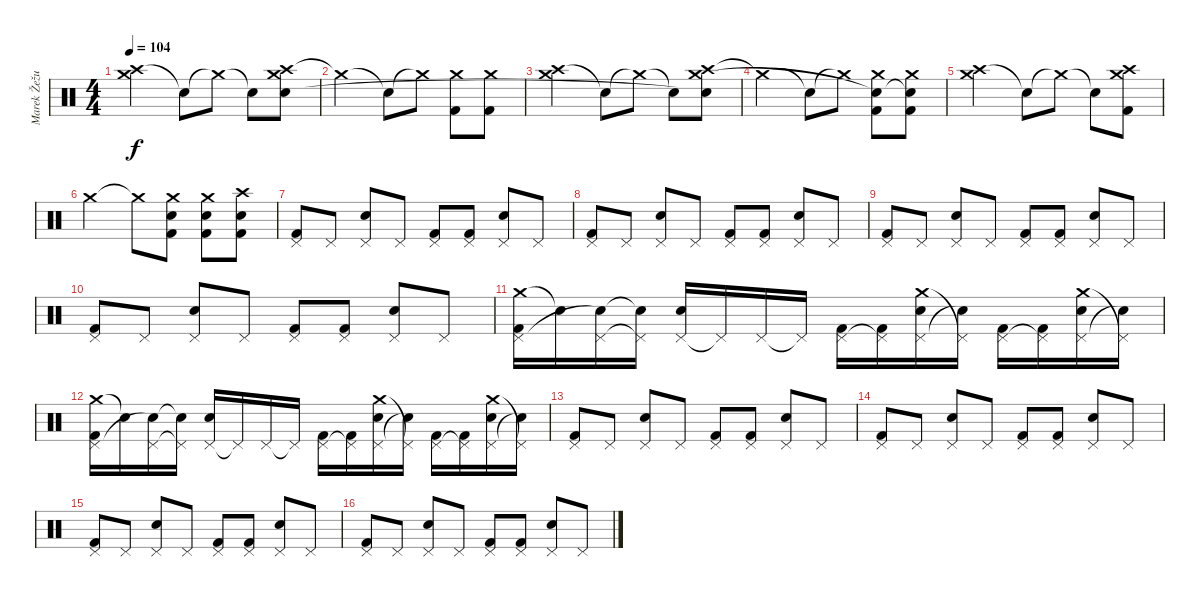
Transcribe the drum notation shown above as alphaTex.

\track ("Marek Žežulka" "Marek Žežu") {instrument percussion}
\staff {score}
\articulation defaults
\ts (4 4)
\tempo 104
\clef neutral
\ks c
("Crash high (hit)" "Crash medium (hit)").2{dy f} "Snare (hit)"{t}.8 "Crash medium (hit)"{t}.8 "Snare (hit)"{t}.8 ("Crash high (hit)" "Crash medium (hit)" "Snare (hit)").8 |
"Crash medium (hit)"{t}.2 "Snare (hit)"{t}.8 "Crash medium (hit)"{t}.8 ("Crash medium (hit)" "Kick (hit) 2").8 ("Crash medium (hit)" "Kick (hit) 2").8 |
("Crash high (hit)" "Crash medium (hit)").2 "Snare (hit)"{t}.8 "Crash medium (hit)"{t}.8 "Snare (hit)"{t}.8 ("Crash high (hit)" "Crash medium (hit)" "Snare (hit)"{t}).8 |
"Crash medium (hit)"{t}.2 "Snare (hit)"{t}.8 "Crash medium (hit)"{t}.8 ("Crash medium (hit)" "Snare (hit)"{t} "Kick (hit) 2").8 ("Crash medium (hit)" "Snare (hit)"{t} "Kick (hit) 2").8 |
("Crash high (hit)" "Crash medium (hit)").2 "Snare (hit)"{t}.8 "Crash medium (hit)"{t}.8 "Snare (hit)"{t}.8 ("Crash high (hit)" "Crash medium (hit)" "Kick (hit) 2").8 |
"Crash medium (hit)".2 "Crash medium (hit)"{t}.8 ("Snare (hit)" "Crash medium (hit)" "Kick (hit) 2").8 ("Snare (hit)" "Crash medium (hit)" "Kick (hit) 2").8 ("Snare (hit)" "Crash high (hit)" "Kick (hit) 2").8 |
("Pedal Hi-Hat (hit)" "Kick (hit) 2").8 "Pedal Hi-Hat (hit)".8 ("Pedal Hi-Hat (hit)" "Electric Snare (hit)").8 "Pedal Hi-Hat (hit)".8 ("Pedal Hi-Hat (hit)" "Kick (hit) 2").8 ("Pedal Hi-Hat (hit)" "Kick (hit) 2").8 ("Pedal Hi-Hat (hit)" "Electric Snare (hit)").8 "Pedal Hi-Hat (hit)".8 |
("Pedal Hi-Hat (hit)" "Kick (hit) 2").8 "Pedal Hi-Hat (hit)".8 ("Pedal Hi-Hat (hit)" "Electric Snare (hit)").8 "Pedal Hi-Hat (hit)".8 ("Pedal Hi-Hat (hit)" "Kick (hit) 2").8 ("Pedal Hi-Hat (hit)" "Kick (hit) 2").8 ("Pedal Hi-Hat (hit)" "Electric Snare (hit)").8 "Pedal Hi-Hat (hit)".8 |
("Pedal Hi-Hat (hit)" "Kick (hit) 2").8 "Pedal Hi-Hat (hit)".8 ("Pedal Hi-Hat (hit)" "Electric Snare (hit)").8 "Pedal Hi-Hat (hit)".8 ("Pedal Hi-Hat (hit)" "Kick (hit) 2").8 ("Pedal Hi-Hat (hit)" "Kick (hit) 2").8 ("Pedal Hi-Hat (hit)" "Electric Snare (hit)").8 "Pedal Hi-Hat (hit)".8 |
("Pedal Hi-Hat (hit)" "Kick (hit) 2").8 "Pedal Hi-Hat (hit)".8 ("Pedal Hi-Hat (hit)" "Electric Snare (hit)").8 "Pedal Hi-Hat (hit)".8 ("Pedal Hi-Hat (hit)" "Kick (hit) 2").8 ("Pedal Hi-Hat (hit)" "Kick (hit) 2").8 ("Pedal Hi-Hat (hit)" "Electric Snare (hit)").8 "Pedal Hi-Hat (hit)".8 |
("Crash medium (hit)" "Pedal Hi-Hat (hit)" "Kick (hit) 2").16 "Electric Snare (hit)"{t}.16 ("Pedal Hi-Hat (hit)" "Electric Snare (hit)"{t}).16 ("Pedal Hi-Hat (hit)"{t} "Electric Snare (hit)"{t}).16 ("Pedal Hi-Hat (hit)" "Electric Snare (hit)").16 "Pedal Hi-Hat (hit)"{t}.16 "Pedal Hi-Hat (hit)".16 "Pedal Hi-Hat (hit)"{t}.16 ("Pedal Hi-Hat (hit)" "Kick (hit) 2").16 ("Pedal Hi-Hat (hit)"{t} "Kick (hit) 2").16 ("Crash medium (hit)" "Pedal Hi-Hat (hit)" "Electric Snare (hit)").16 ("Pedal Hi-Hat (hit)"{t} "Electric Snare (hit)"{t}).16 ("Pedal Hi-Hat (hit)" "Kick (hit) 2").16 ("Pedal Hi-Hat (hit)"{t} "Kick (hit) 2").16 ("Crash medium (hit)" "Pedal Hi-Hat (hit)" "Electric Snare (hit)").16 ("Pedal Hi-Hat (hit)"{t} "Electric Snare (hit)"{t}).16 |
("Crash medium (hit)" "Pedal Hi-Hat (hit)" "Kick (hit) 2").16 "Electric Snare (hit)"{t}.16 ("Pedal Hi-Hat (hit)" "Electric Snare (hit)"{t}).16 ("Pedal Hi-Hat (hit)"{t} "Electric Snare (hit)"{t}).16 ("Pedal Hi-Hat (hit)" "Electric Snare (hit)").16 "Pedal Hi-Hat (hit)"{t}.16 "Pedal Hi-Hat (hit)".16 "Pedal Hi-Hat (hit)"{t}.16 ("Pedal Hi-Hat (hit)" "Kick (hit) 2").16 ("Pedal Hi-Hat (hit)"{t} "Kick (hit) 2").16 ("Crash medium (hit)" "Pedal Hi-Hat (hit)" "Electric Snare (hit)").16 ("Pedal Hi-Hat (hit)"{t} "Electric Snare (hit)"{t}).16 ("Pedal Hi-Hat (hit)" "Kick (hit) 2").16 ("Pedal Hi-Hat (hit)"{t} "Kick (hit) 2").16 ("Crash medium (hit)" "Pedal Hi-Hat (hit)" "Electric Snare (hit)").16 ("Pedal Hi-Hat (hit)"{t} "Electric Snare (hit)"{t}).16 |
("Pedal Hi-Hat (hit)" "Kick (hit) 2").8 "Pedal Hi-Hat (hit)".8 ("Pedal Hi-Hat (hit)" "Electric Snare (hit)").8 "Pedal Hi-Hat (hit)".8 ("Pedal Hi-Hat (hit)" "Kick (hit) 2").8 ("Pedal Hi-Hat (hit)" "Kick (hit) 2").8 ("Pedal Hi-Hat (hit)" "Electric Snare (hit)").8 "Pedal Hi-Hat (hit)".8 |
("Pedal Hi-Hat (hit)" "Kick (hit) 2").8 "Pedal Hi-Hat (hit)".8 ("Pedal Hi-Hat (hit)" "Electric Snare (hit)").8 "Pedal Hi-Hat (hit)".8 ("Pedal Hi-Hat (hit)" "Kick (hit) 2").8 ("Pedal Hi-Hat (hit)" "Kick (hit) 2").8 ("Pedal Hi-Hat (hit)" "Electric Snare (hit)").8 "Pedal Hi-Hat (hit)".8 |
("Pedal Hi-Hat (hit)" "Kick (hit) 2").8 "Pedal Hi-Hat (hit)".8 ("Pedal Hi-Hat (hit)" "Electric Snare (hit)").8 "Pedal Hi-Hat (hit)".8 ("Pedal Hi-Hat (hit)" "Kick (hit) 2").8 ("Pedal Hi-Hat (hit)" "Kick (hit) 2").8 ("Pedal Hi-Hat (hit)" "Electric Snare (hit)").8 "Pedal Hi-Hat (hit)".8 |
("Pedal Hi-Hat (hit)" "Kick (hit) 2").8 "Pedal Hi-Hat (hit)".8 ("Pedal Hi-Hat (hit)" "Electric Snare (hit)").8 "Pedal Hi-Hat (hit)".8 ("Pedal Hi-Hat (hit)" "Kick (hit) 2").8 ("Pedal Hi-Hat (hit)" "Kick (hit) 2").8 ("Pedal Hi-Hat (hit)" "Electric Snare (hit)").8 "Pedal Hi-Hat (hit)".8
